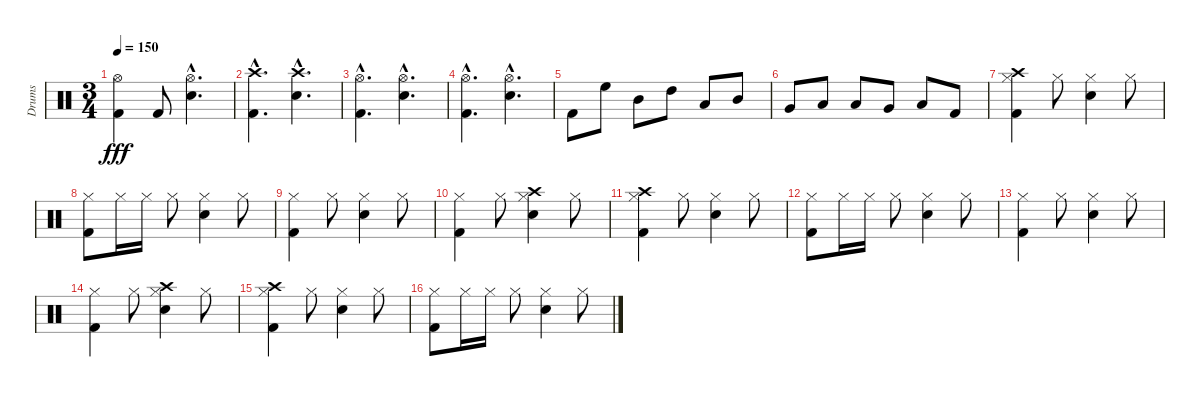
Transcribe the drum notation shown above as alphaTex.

\track ("Drums" "Drums") {instrument percussion}
\staff {score}
\articulation defaults
\ts (3 4)
\tempo 150
\clef neutral
\ks c
("Hi-Hat (open)" "Kick (hit) 2").4{dy fff} "Kick (hit) 2".8 ("Hi-Hat (open)"{hac} "Snare (hit) 2"{hac}).4{d} |
("Crash high (hit)"{hac} "Kick (hit) 2"{hac}).4{d} ("Crash high (hit)"{hac} "Snare (hit) 2"{hac}).4{d} |
("Hi-Hat (open)"{hac} "Kick (hit) 2"{hac}).4{d} ("Hi-Hat (open)"{hac} "Snare (hit) 2"{hac}).4{d} |
("Hi-Hat (open)"{hac} "Kick (hit) 2"{hac}).4{d} ("Hi-Hat (open)"{hac} "Snare (hit) 2"{hac}).4{d} |
"Kick (hit) 2".8 "High Floor Tom (hit)".8 "Mid Tom (hit)".8 "High Tom (hit)".8 "Low Tom (hit)".8 "Mid Tom (hit)".8 |
"Very Low Tom (hit)".8 "Low Tom (hit)".8 "Low Floor Tom (hit)".8 "Very Low Tom (hit)".8 "Low Floor Tom (hit)".8 "Kick (hit) 2".8 |
("Hi-Hat (closed)" "Kick (hit) 2" "Crash high (hit)").4 "Hi-Hat (closed)".8 ("Hi-Hat (closed)" "Snare (hit) 2").4 "Hi-Hat (closed)".8 |
("Hi-Hat (closed)" "Kick (hit) 2").8 "Hi-Hat (closed)".16 "Hi-Hat (closed)".16 "Hi-Hat (closed)".8 ("Hi-Hat (closed)" "Snare (hit) 2").4 "Hi-Hat (closed)".8 |
("Hi-Hat (closed)" "Kick (hit) 2").4 "Hi-Hat (closed)".8 ("Hi-Hat (closed)" "Snare (hit) 2").4 "Hi-Hat (closed)".8 |
("Hi-Hat (closed)" "Kick (hit) 2").4 "Hi-Hat (closed)".8 ("Hi-Hat (closed)" "Snare (hit) 2" "Crash high (hit)").4 "Hi-Hat (closed)".8 |
("Hi-Hat (closed)" "Kick (hit) 2" "Crash high (hit)").4 "Hi-Hat (closed)".8 ("Hi-Hat (closed)" "Snare (hit) 2").4 "Hi-Hat (closed)".8 |
("Hi-Hat (closed)" "Kick (hit) 2").8 "Hi-Hat (closed)".16 "Hi-Hat (closed)".16 "Hi-Hat (closed)".8 ("Hi-Hat (closed)" "Snare (hit) 2").4 "Hi-Hat (closed)".8 |
("Hi-Hat (closed)" "Kick (hit) 2").4 "Hi-Hat (closed)".8 ("Hi-Hat (closed)" "Snare (hit) 2").4 "Hi-Hat (closed)".8 |
("Hi-Hat (closed)" "Kick (hit) 2").4 "Hi-Hat (closed)".8 ("Hi-Hat (closed)" "Snare (hit) 2" "Crash high (hit)").4 "Hi-Hat (closed)".8 |
("Hi-Hat (closed)" "Kick (hit) 2" "Crash high (hit)").4 "Hi-Hat (closed)".8 ("Hi-Hat (closed)" "Snare (hit) 2").4 "Hi-Hat (closed)".8 |
("Hi-Hat (closed)" "Kick (hit) 2").8 "Hi-Hat (closed)".16 "Hi-Hat (closed)".16 "Hi-Hat (closed)".8 ("Hi-Hat (closed)" "Snare (hit) 2").4 "Hi-Hat (closed)".8
